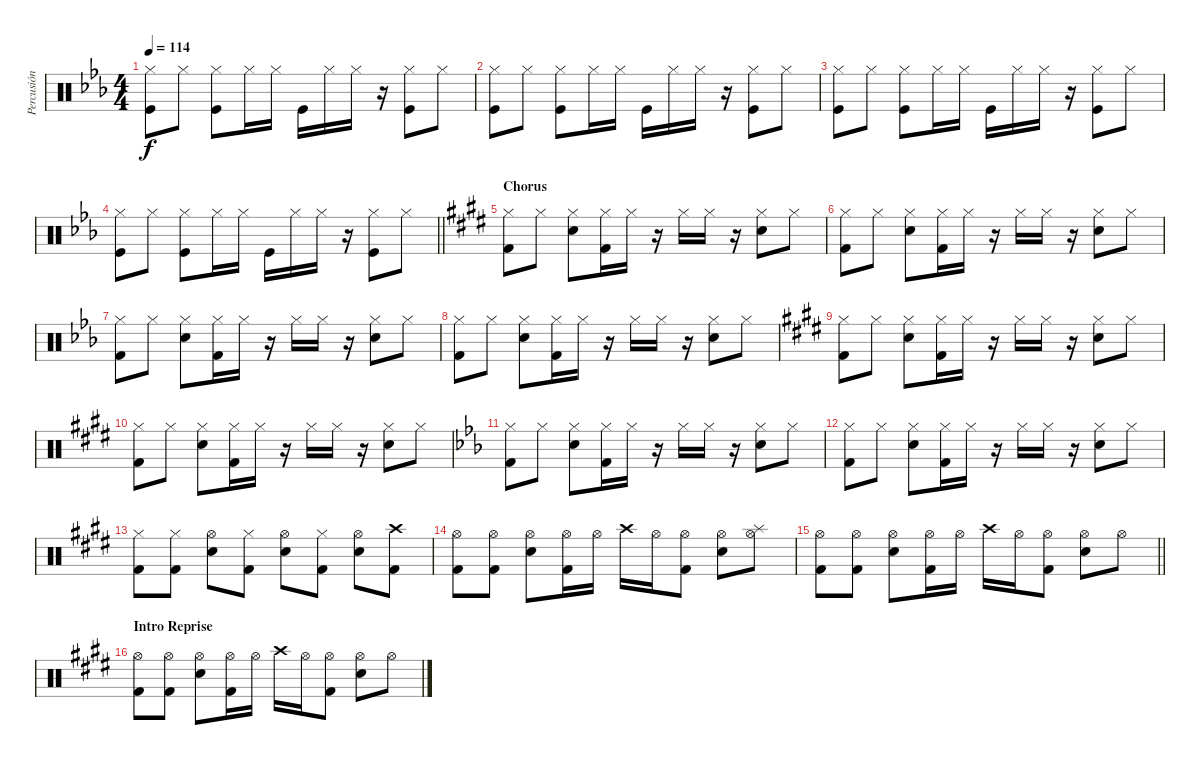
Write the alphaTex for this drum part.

\track ("Percusión" "Percusión") {instrument percussion}
\staff {score}
\articulation defaults
\ts (4 4)
\tempo 114
\clef neutral
\ks eb
("Hi-Hat (closed)" "Kick (hit)").8{dy f} "Hi-Hat (closed)".8 ("Hi-Hat (closed)" "Kick (hit)").8 "Hi-Hat (closed)".16 "Hi-Hat (closed)".16 "Kick (hit)".16 "Hi-Hat (closed)".16 "Hi-Hat (closed)".16 r.16 ("Hi-Hat (closed)" "Kick (hit)").8 "Hi-Hat (closed)".8 |
("Hi-Hat (closed)" "Kick (hit)").8 "Hi-Hat (closed)".8 ("Hi-Hat (closed)" "Kick (hit)").8 "Hi-Hat (closed)".16 "Hi-Hat (closed)".16 "Kick (hit)".16 "Hi-Hat (closed)".16 "Hi-Hat (closed)".16 r.16 ("Hi-Hat (closed)" "Kick (hit)").8 "Hi-Hat (closed)".8 |
("Hi-Hat (closed)" "Kick (hit)").8 "Hi-Hat (closed)".8 ("Hi-Hat (closed)" "Kick (hit)").8 "Hi-Hat (closed)".16 "Hi-Hat (closed)".16 "Kick (hit)".16 "Hi-Hat (closed)".16 "Hi-Hat (closed)".16 r.16 ("Hi-Hat (closed)" "Kick (hit)").8 "Hi-Hat (closed)".8 |
\barLineRight lightlight
("Hi-Hat (closed)" "Kick (hit)").8 "Hi-Hat (closed)".8 ("Hi-Hat (closed)" "Kick (hit)").8 "Hi-Hat (closed)".16 "Hi-Hat (closed)".16 "Kick (hit)".16 "Hi-Hat (closed)".16 "Hi-Hat (closed)".16 r.16 ("Hi-Hat (closed)" "Kick (hit)").8 "Hi-Hat (closed)".8 |
\section ("" "Chorus")
\ks e
("Hi-Hat (closed)" "Kick (hit) 2").8 "Hi-Hat (closed)".8 ("Hi-Hat (closed)" "Snare (hit) 2").8 ("Hi-Hat (closed)" "Kick (hit) 2").16 "Hi-Hat (closed)".16 r.16 "Hi-Hat (closed)".16 "Hi-Hat (closed)".16 r.16 ("Hi-Hat (closed)" "Snare (hit) 2").8 "Hi-Hat (closed)".8 |
\ks c#minor
("Hi-Hat (closed)" "Kick (hit) 2").8 "Hi-Hat (closed)".8 ("Hi-Hat (closed)" "Snare (hit) 2").8 ("Hi-Hat (closed)" "Kick (hit) 2").16 "Hi-Hat (closed)".16 r.16 "Hi-Hat (closed)".16 "Hi-Hat (closed)".16 r.16 ("Hi-Hat (closed)" "Snare (hit) 2").8 "Hi-Hat (closed)".8 |
\ks eb
("Hi-Hat (closed)" "Kick (hit) 2").8 "Hi-Hat (closed)".8 ("Hi-Hat (closed)" "Snare (hit) 2").8 ("Hi-Hat (closed)" "Kick (hit) 2").16 "Hi-Hat (closed)".16 r.16 "Hi-Hat (closed)".16 "Hi-Hat (closed)".16 r.16 ("Hi-Hat (closed)" "Snare (hit) 2").8 "Hi-Hat (closed)".8 |
("Hi-Hat (closed)" "Kick (hit) 2").8 "Hi-Hat (closed)".8 ("Hi-Hat (closed)" "Snare (hit) 2").8 ("Hi-Hat (closed)" "Kick (hit) 2").16 "Hi-Hat (closed)".16 r.16 "Hi-Hat (closed)".16 "Hi-Hat (closed)".16 r.16 ("Hi-Hat (closed)" "Snare (hit) 2").8 "Hi-Hat (closed)".8 |
\ks e
("Hi-Hat (closed)" "Kick (hit) 2").8 "Hi-Hat (closed)".8 ("Hi-Hat (closed)" "Snare (hit) 2").8 ("Hi-Hat (closed)" "Kick (hit) 2").16 "Hi-Hat (closed)".16 r.16 "Hi-Hat (closed)".16 "Hi-Hat (closed)".16 r.16 ("Hi-Hat (closed)" "Snare (hit) 2").8 "Hi-Hat (closed)".8 |
\ks c#minor
("Hi-Hat (closed)" "Kick (hit) 2").8 "Hi-Hat (closed)".8 ("Hi-Hat (closed)" "Snare (hit) 2").8 ("Hi-Hat (closed)" "Kick (hit) 2").16 "Hi-Hat (closed)".16 r.16 "Hi-Hat (closed)".16 "Hi-Hat (closed)".16 r.16 ("Hi-Hat (closed)" "Snare (hit) 2").8 "Hi-Hat (closed)".8 |
\ks eb
("Hi-Hat (closed)" "Kick (hit) 2").8 "Hi-Hat (closed)".8 ("Hi-Hat (closed)" "Snare (hit) 2").8 ("Hi-Hat (closed)" "Kick (hit) 2").16 "Hi-Hat (closed)".16 r.16 "Hi-Hat (closed)".16 "Hi-Hat (closed)".16 r.16 ("Hi-Hat (closed)" "Snare (hit) 2").8 "Hi-Hat (closed)".8 |
("Hi-Hat (closed)" "Kick (hit) 2").8 "Hi-Hat (closed)".8 ("Hi-Hat (closed)" "Snare (hit) 2").8 ("Hi-Hat (closed)" "Kick (hit) 2").16 "Hi-Hat (closed)".16 r.16 "Hi-Hat (closed)".16 "Hi-Hat (closed)".16 r.16 ("Hi-Hat (closed)" "Snare (hit) 2").8 "Hi-Hat (closed)".8 |
\ks c#minor
("Hi-Hat (closed)" "Kick (hit) 2").8 ("Hi-Hat (closed)" "Kick (hit) 2").8 ("Hi-Hat (open)" "Snare (hit) 2").8 ("Hi-Hat (closed)" "Kick (hit) 2").8 ("Hi-Hat (open)" "Snare (hit) 2").8 ("Hi-Hat (closed)" "Kick (hit) 2").8 ("Hi-Hat (open)" "Snare (hit) 2").8 ("Crash high (hit)" "Kick (hit) 2").8 |
("Hi-Hat (open)" "Kick (hit) 2").8 ("Hi-Hat (open)" "Kick (hit) 2").8 ("Hi-Hat (open)" "Snare (hit) 2").8 ("Hi-Hat (open)" "Kick (hit) 2").16 "Hi-Hat (open)".16 "Crash high (hit)".16 "Hi-Hat (open)".16 ("Hi-Hat (open)" "Kick (hit) 2").8 ("Hi-Hat (open)" "Snare (hit) 2").8 ("Hi-Hat (open)" "Splash (hit)").8 |
\barLineRight lightlight
("Hi-Hat (open)" "Kick (hit) 2").8 ("Hi-Hat (open)" "Kick (hit) 2").8 ("Hi-Hat (open)" "Snare (hit) 2").8 ("Hi-Hat (open)" "Kick (hit) 2").16 "Hi-Hat (open)".16 "Crash high (hit)".16 "Hi-Hat (open)".16 ("Hi-Hat (open)" "Kick (hit) 2").8 ("Hi-Hat (open)" "Snare (hit) 2").8 "Hi-Hat (open)".8 |
\section ("" "Intro Reprise")
\ks e
("Hi-Hat (open)" "Kick (hit) 2").8 ("Hi-Hat (open)" "Kick (hit) 2").8 ("Hi-Hat (open)" "Snare (hit) 2").8 ("Hi-Hat (open)" "Kick (hit) 2").16 "Hi-Hat (open)".16 "Crash high (hit)".16 "Hi-Hat (open)".16 ("Hi-Hat (open)" "Kick (hit) 2").8 ("Hi-Hat (open)" "Snare (hit) 2").8 "Hi-Hat (open)".8
